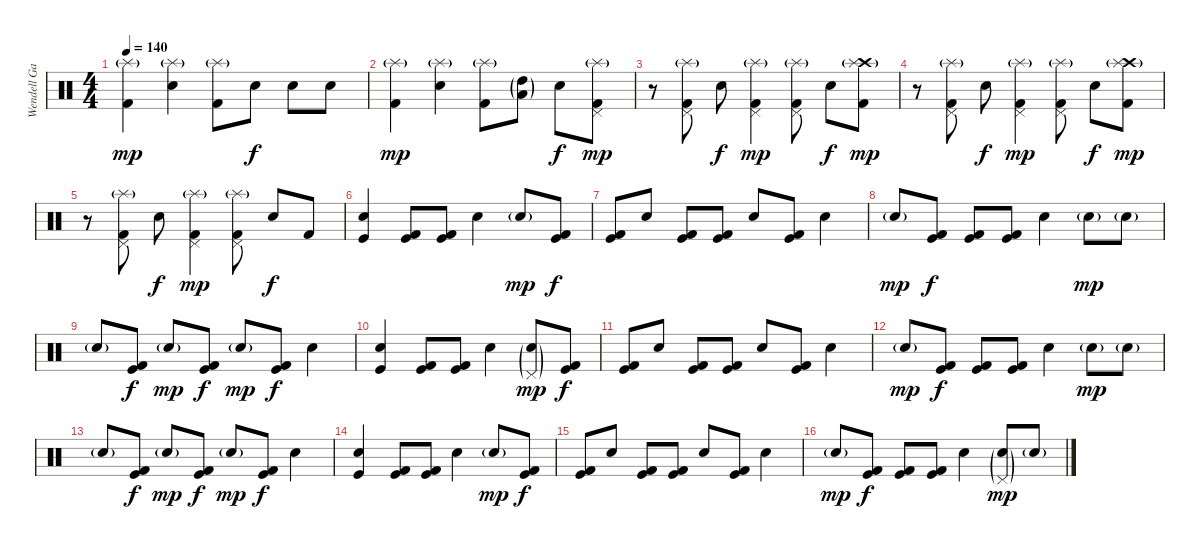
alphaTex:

\track ("Wendell Garcia(Drums)" "Wendell Ga") {instrument percussion}
\staff {score}
\articulation defaults
\ts (4 4)
\tempo 140
\clef neutral
\ks c
("Splash (hit)"{g} "Kick (hit) 2").4{dy mp} ("Splash (hit)"{g} "Electric Snare (hit)").4 ("Splash (hit)"{g} "Kick (hit) 2").8 "Electric Snare (hit)".8{dy f} "Electric Snare (hit)".8 "Electric Snare (hit)".8 |
("Splash (hit)"{g} "Kick (hit) 2").4{dy mp} ("Splash (hit)"{g} "Electric Snare (hit)").4 ("Splash (hit)"{g} "Kick (hit) 2").8 ("High Tom (hit)"{g} "Low Tom (hit)"{g}).8 "Electric Snare (hit)".8{dy f} ("Splash (hit)"{g} "Pedal Hi-Hat (hit)" "Kick (hit) 2").8{dy mp} |
r.8 ("Splash (hit)"{g} "Pedal Hi-Hat (hit)" "Kick (hit) 2").8 "Electric Snare (hit)".8{dy f} ("Splash (hit)"{g} "Pedal Hi-Hat (hit)" "Kick (hit) 2").4{dy mp} ("Splash (hit)"{g} "Pedal Hi-Hat (hit)" "Kick (hit) 2").8 "Electric Snare (hit)".8{dy f} ("Crash high (hit)" "Splash (hit)"{g} "Kick (hit) 2").8{dy mp} |
r.8 ("Splash (hit)"{g} "Pedal Hi-Hat (hit)" "Kick (hit) 2").8 "Electric Snare (hit)".8{dy f} ("Splash (hit)"{g} "Pedal Hi-Hat (hit)" "Kick (hit) 2").4{dy mp} ("Splash (hit)"{g} "Pedal Hi-Hat (hit)" "Kick (hit) 2").8 "Electric Snare (hit)".8{dy f} ("Crash high (hit)" "Splash (hit)"{g} "Kick (hit) 2").8{dy mp} |
r.8 ("Splash (hit)"{g} "Pedal Hi-Hat (hit)" "Kick (hit) 2").8 "Electric Snare (hit)".8{dy f} ("Splash (hit)"{g} "Pedal Hi-Hat (hit)" "Kick (hit) 2").4{dy mp} ("Splash (hit)"{g} "Pedal Hi-Hat (hit)" "Kick (hit) 2").8 "Electric Snare (hit)".8{dy f} "Kick (hit) 2".8 |
("Electric Snare (hit)" "Kick (hit)").4 ("Kick (hit) 2" "Kick (hit)").8 ("Kick (hit) 2" "Kick (hit)").8 "Electric Snare (hit)".4 "Electric Snare (hit)"{g}.8{dy mp} ("Kick (hit) 2" "Kick (hit)").8{dy f} |
("Kick (hit) 2" "Kick (hit)").8 "Electric Snare (hit)".8 ("Kick (hit) 2" "Kick (hit)").8 ("Kick (hit) 2" "Kick (hit)").8 "Electric Snare (hit)".8 ("Kick (hit) 2" "Kick (hit)").8 "Electric Snare (hit)".4 |
"Electric Snare (hit)"{g}.8{dy mp} ("Kick (hit) 2" "Kick (hit)").8{dy f} ("Kick (hit) 2" "Kick (hit)").8 ("Kick (hit) 2" "Kick (hit)").8 "Electric Snare (hit)".4 "Electric Snare (hit)"{g}.8{dy mp} "Electric Snare (hit)"{g}.8 |
"Electric Snare (hit)"{g}.8 ("Kick (hit) 2" "Kick (hit)").8{dy f} "Electric Snare (hit)"{g}.8{dy mp} ("Kick (hit) 2" "Kick (hit)").8{dy f} "Electric Snare (hit)"{g}.8{dy mp} ("Kick (hit) 2" "Kick (hit)").8{dy f} "Electric Snare (hit)".4 |
("Electric Snare (hit)" "Kick (hit)").4 ("Kick (hit) 2" "Kick (hit)").8 ("Kick (hit) 2" "Kick (hit)").8 "Electric Snare (hit)".4 ("Electric Snare (hit)"{g} "Pedal Hi-Hat (hit)"{g}).8{dy mp} ("Kick (hit) 2" "Kick (hit)").8{dy f} |
("Kick (hit) 2" "Kick (hit)").8 "Electric Snare (hit)".8 ("Kick (hit) 2" "Kick (hit)").8 ("Kick (hit) 2" "Kick (hit)").8 "Electric Snare (hit)".8 ("Kick (hit) 2" "Kick (hit)").8 "Electric Snare (hit)".4 |
"Electric Snare (hit)"{g}.8{dy mp} ("Kick (hit) 2" "Kick (hit)").8{dy f} ("Kick (hit) 2" "Kick (hit)").8 ("Kick (hit) 2" "Kick (hit)").8 "Electric Snare (hit)".4 "Electric Snare (hit)"{g}.8{dy mp} "Electric Snare (hit)"{g}.8 |
"Electric Snare (hit)"{g}.8 ("Kick (hit) 2" "Kick (hit)").8{dy f} "Electric Snare (hit)"{g}.8{dy mp} ("Kick (hit) 2" "Kick (hit)").8{dy f} "Electric Snare (hit)"{g}.8{dy mp} ("Kick (hit) 2" "Kick (hit)").8{dy f} "Electric Snare (hit)".4 |
("Electric Snare (hit)" "Kick (hit)").4 ("Kick (hit) 2" "Kick (hit)").8 ("Kick (hit) 2" "Kick (hit)").8 "Electric Snare (hit)".4 "Electric Snare (hit)"{g}.8{dy mp} ("Kick (hit) 2" "Kick (hit)").8{dy f} |
("Kick (hit) 2" "Kick (hit)").8 "Electric Snare (hit)".8 ("Kick (hit) 2" "Kick (hit)").8 ("Kick (hit) 2" "Kick (hit)").8 "Electric Snare (hit)".8 ("Kick (hit) 2" "Kick (hit)").8 "Electric Snare (hit)".4 |
"Electric Snare (hit)"{g}.8{dy mp} ("Kick (hit) 2" "Kick (hit)").8{dy f} ("Kick (hit) 2" "Kick (hit)").8 ("Kick (hit) 2" "Kick (hit)").8 "Electric Snare (hit)".4 ("Electric Snare (hit)"{g} "Pedal Hi-Hat (hit)"{g}).8{dy mp} "Electric Snare (hit)"{g}.8
